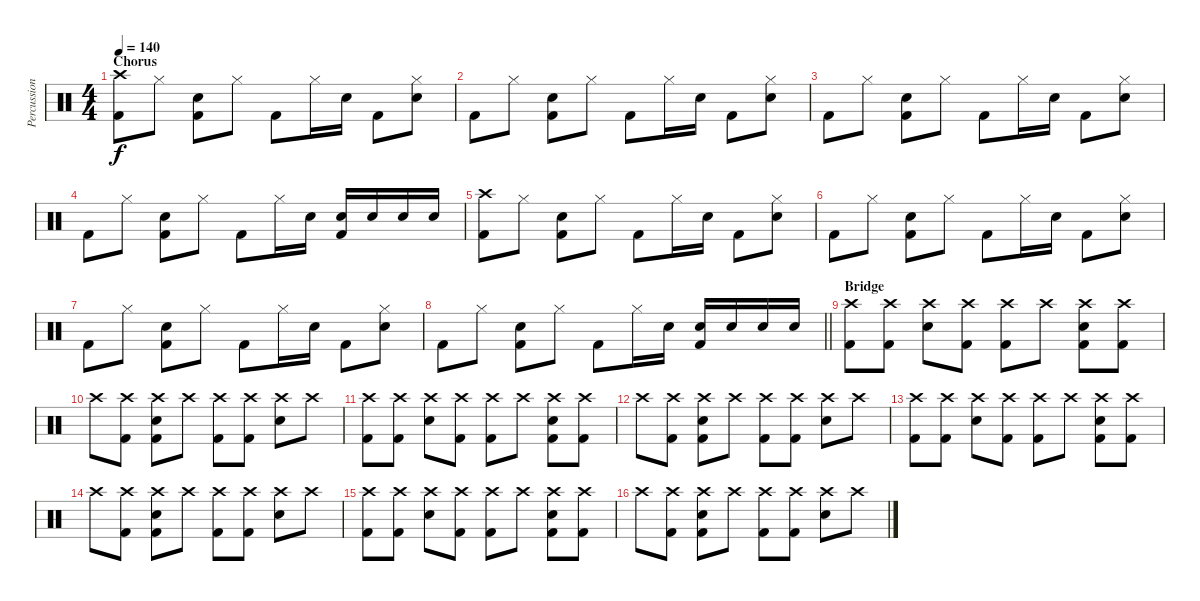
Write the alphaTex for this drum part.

\track ("Percussion" "Percussion") {instrument percussion}
\staff {score}
\articulation defaults
\ts (4 4)
\section ("" "Chorus")
\tempo 140
\clef neutral
\ks c
("Crash high (hit)" "Kick (hit) 2").8{dy f} "Hi-Hat (closed)".8 ("Electric Snare (hit)" "Kick (hit) 2").8 "Hi-Hat (closed)".8 "Kick (hit) 2".8 "Hi-Hat (closed)".16 "Electric Snare (hit)".16 "Kick (hit) 2".8 ("Hi-Hat (closed)" "Electric Snare (hit)").8 |
"Kick (hit) 2".8 "Hi-Hat (closed)".8 ("Electric Snare (hit)" "Kick (hit) 2").8 "Hi-Hat (closed)".8 "Kick (hit) 2".8 "Hi-Hat (closed)".16 "Electric Snare (hit)".16 "Kick (hit) 2".8 ("Hi-Hat (closed)" "Electric Snare (hit)").8 |
"Kick (hit) 2".8 "Hi-Hat (closed)".8 ("Electric Snare (hit)" "Kick (hit) 2").8 "Hi-Hat (closed)".8 "Kick (hit) 2".8 "Hi-Hat (closed)".16 "Electric Snare (hit)".16 "Kick (hit) 2".8 ("Hi-Hat (closed)" "Electric Snare (hit)").8 |
"Kick (hit) 2".8 "Hi-Hat (closed)".8 ("Electric Snare (hit)" "Kick (hit) 2").8 "Hi-Hat (closed)".8 "Kick (hit) 2".8 "Hi-Hat (closed)".16 "Electric Snare (hit)".16 ("Electric Snare (hit)" "Kick (hit) 2").16 "Electric Snare (hit)".16 "Electric Snare (hit)".16 "Electric Snare (hit)".16 |
("Crash high (hit)" "Kick (hit) 2").8 "Hi-Hat (closed)".8 ("Electric Snare (hit)" "Kick (hit) 2").8 "Hi-Hat (closed)".8 "Kick (hit) 2".8 "Hi-Hat (closed)".16 "Electric Snare (hit)".16 "Kick (hit) 2".8 ("Hi-Hat (closed)" "Electric Snare (hit)").8 |
"Kick (hit) 2".8 "Hi-Hat (closed)".8 ("Electric Snare (hit)" "Kick (hit) 2").8 "Hi-Hat (closed)".8 "Kick (hit) 2".8 "Hi-Hat (closed)".16 "Electric Snare (hit)".16 "Kick (hit) 2".8 ("Hi-Hat (closed)" "Electric Snare (hit)").8 |
"Kick (hit) 2".8 "Hi-Hat (closed)".8 ("Electric Snare (hit)" "Kick (hit) 2").8 "Hi-Hat (closed)".8 "Kick (hit) 2".8 "Hi-Hat (closed)".16 "Electric Snare (hit)".16 "Kick (hit) 2".8 ("Hi-Hat (closed)" "Electric Snare (hit)").8 |
\barLineRight lightlight "Kick (hit) 2".8 "Hi-Hat (closed)".8
("Electric Snare (hit)" "Kick (hit) 2").8 "Hi-Hat (closed)".8 "Kick (hit) 2".8 "Hi-Hat (closed)".16 "Electric Snare (hit)".16 ("Electric Snare (hit)" "Kick (hit) 2").16 "Electric Snare (hit)".16 "Electric Snare (hit)".16 "Electric Snare (hit)".16 |
\section ("" "Bridge")
("Crash high (hit)" "Kick (hit) 2").8 ("Crash high (hit)" "Kick (hit) 2").8 ("Crash high (hit)" "Electric Snare (hit)").8 ("Crash high (hit)" "Kick (hit) 2").8 ("Crash high (hit)" "Kick (hit) 2").8 "Crash high (hit)".8 ("Crash high (hit)" "Electric Snare (hit)" "Kick (hit) 2").8 ("Crash high (hit)" "Kick (hit) 2").8 |
"Crash high (hit)".8 ("Crash high (hit)" "Kick (hit) 2").8 ("Crash high (hit)" "Electric Snare (hit)" "Kick (hit) 2").8 "Crash high (hit)".8 ("Crash high (hit)" "Kick (hit) 2").8 ("Crash high (hit)" "Kick (hit) 2").8 ("Crash high (hit)" "Electric Snare (hit)").8 "Crash high (hit)".8 |
("Crash high (hit)" "Kick (hit) 2").8 ("Crash high (hit)" "Kick (hit) 2").8 ("Crash high (hit)" "Electric Snare (hit)").8 ("Crash high (hit)" "Kick (hit) 2").8 ("Crash high (hit)" "Kick (hit) 2").8 "Crash high (hit)".8 ("Crash high (hit)" "Electric Snare (hit)" "Kick (hit) 2").8 ("Crash high (hit)" "Kick (hit) 2").8 |
"Crash high (hit)".8 ("Crash high (hit)" "Kick (hit) 2").8 ("Crash high (hit)" "Electric Snare (hit)" "Kick (hit) 2").8 "Crash high (hit)".8 ("Crash high (hit)" "Kick (hit) 2").8 ("Crash high (hit)" "Kick (hit) 2").8 ("Crash high (hit)" "Electric Snare (hit)").8 "Crash high (hit)".8 |
("Crash high (hit)" "Kick (hit) 2").8 ("Crash high (hit)" "Kick (hit) 2").8 ("Crash high (hit)" "Electric Snare (hit)").8 ("Crash high (hit)" "Kick (hit) 2").8 ("Crash high (hit)" "Kick (hit) 2").8 "Crash high (hit)".8 ("Crash high (hit)" "Electric Snare (hit)" "Kick (hit) 2").8 ("Crash high (hit)" "Kick (hit) 2").8 |
"Crash high (hit)".8 ("Crash high (hit)" "Kick (hit) 2").8 ("Crash high (hit)" "Electric Snare (hit)" "Kick (hit) 2").8 "Crash high (hit)".8 ("Crash high (hit)" "Kick (hit) 2").8 ("Crash high (hit)" "Kick (hit) 2").8 ("Crash high (hit)" "Electric Snare (hit)").8 "Crash high (hit)".8 |
("Crash high (hit)" "Kick (hit) 2").8 ("Crash high (hit)" "Kick (hit) 2").8 ("Crash high (hit)" "Electric Snare (hit)").8 ("Crash high (hit)" "Kick (hit) 2").8 ("Crash high (hit)" "Kick (hit) 2").8 "Crash high (hit)".8 ("Crash high (hit)" "Electric Snare (hit)" "Kick (hit) 2").8 ("Crash high (hit)" "Kick (hit) 2").8 |
"Crash high (hit)".8 ("Crash high (hit)" "Kick (hit) 2").8 ("Crash high (hit)" "Electric Snare (hit)" "Kick (hit) 2").8 "Crash high (hit)".8 ("Crash high (hit)" "Kick (hit) 2").8 ("Crash high (hit)" "Kick (hit) 2").8 ("Crash high (hit)" "Electric Snare (hit)").8 "Crash high (hit)".8
